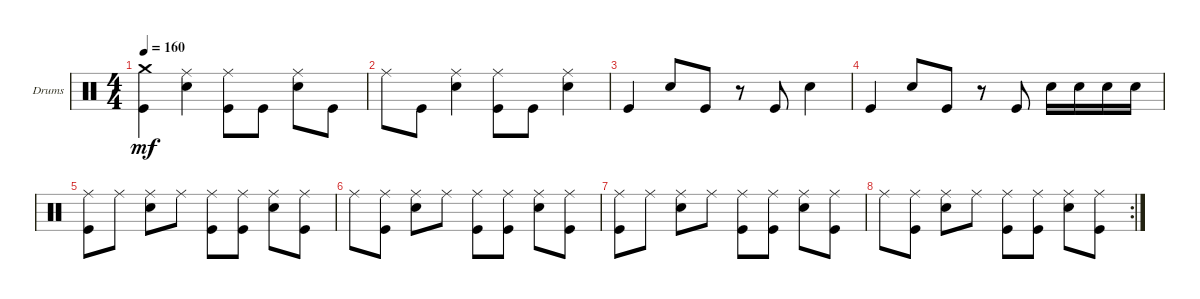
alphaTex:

\defaultSystemsLayout 4
\bracketExtendMode groupsimilarinstruments
\firstSystemTrackNameOrientation horizontal
\otherSystemsTrackNameOrientation horizontal
\track ("Drumkit" "Drums") {instrument percussion}
\staff {score}
\articulation defaults
\ts (4 4)
\tempo 160
\clef neutral
\scale
0.333333
\ks c
("Crash medium (hit)" "Kick (hit)").4{dy mf} ("Ride (middle)" "Snare (hit) 2").4 ("Ride (middle)" "Kick (hit)").8 "Kick (hit)".8 ("Ride (middle)" "Snare (hit) 2").8 "Kick (hit)".8 |
\scale
0.333333 "Ride (middle)".8 "Kick (hit)".8 ("Ride (middle)" "Snare (hit) 2").4 ("Ride (middle)" "Kick (hit)").8 "Kick (hit)".8 ("Ride (middle)" "Snare (hit) 2").4 |
\scale
0.333333 "Kick (hit)".4 "Snare (hit) 2".8 "Kick (hit)".8 r.8 "Kick (hit)".8 "Snare (hit) 2".4 |
\scale
0.333333 "Kick (hit)".4 "Snare (hit) 2".8 "Kick (hit)".8 r.8 "Kick (hit)".8 "Snare (hit) 2".16 "Snare (hit) 2".16 "Snare (hit) 2".16 "Snare (hit) 2".16 |
\scale
0.333333 ("Ride (middle)" "Kick (hit)").8 "Ride (middle)".8 ("Ride (middle)" "Snare (hit) 2").8 "Ride (middle)".8 ("Ride (middle)" "Kick (hit)").8 ("Ride (middle)" "Kick (hit)").8 ("Ride (middle)" "Snare (hit) 2").8 ("Ride (middle)" "Kick (hit)").8 |
\scale
0.333333 "Ride (middle)".8 ("Ride (middle)" "Kick (hit)").8 ("Ride (middle)" "Snare (hit) 2").8 "Ride (middle)".8 ("Ride (middle)" "Kick (hit)").8 ("Ride (middle)" "Kick (hit)").8 ("Ride (middle)" "Snare (hit) 2").8 ("Ride (middle)" "Kick (hit)").8 |
("Ride (middle)" "Kick (hit)").8 "Ride (middle)".8 ("Ride (middle)" "Snare (hit) 2").8 "Ride (middle)".8 ("Ride (middle)" "Kick (hit)").8 ("Ride (middle)" "Kick (hit)").8 ("Ride (middle)" "Snare (hit) 2").8 ("Ride (middle)" "Kick (hit)").8 |
\rc 2 "Ride (middle)".8
("Ride (middle)" "Kick (hit)").8 ("Ride (middle)" "Snare (hit) 2").8 "Ride (middle)".8 ("Ride (middle)" "Kick (hit)").8 ("Ride (middle)" "Kick (hit)").8 ("Ride (middle)" "Snare (hit) 2").8 ("Ride (middle)" "Kick (hit)").8
